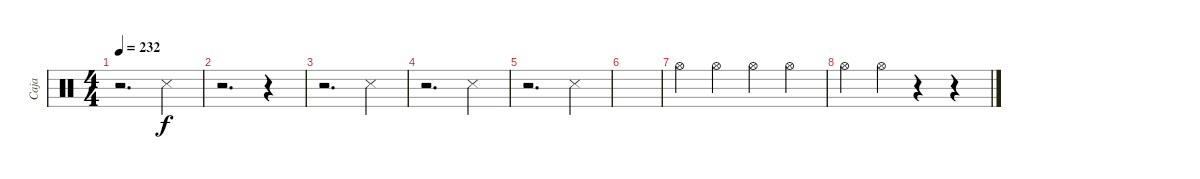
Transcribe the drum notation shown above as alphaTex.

\track ("Caja" "Caja") {instrument percussion}
\staff {score}
\articulation defaults
\ts (4 4)
\tempo 232
\clef neutral
\ks c
r.2{d dy f} "Snare (side stick) 3".4 |
r.2{d} r.4 |
r.2{d} "Snare (side stick) 3".4 |
r.2{d} "Snare (side stick) 3".4 |
r.2{d} "Snare (side stick) 3".4 |
|
"Hi-Hat (open)".4 "Hi-Hat (open)".4 "Hi-Hat (open)".4 "Hi-Hat (open)".4 |
"Hi-Hat (open)".4 "Hi-Hat (open)".4 r.4 r.4
